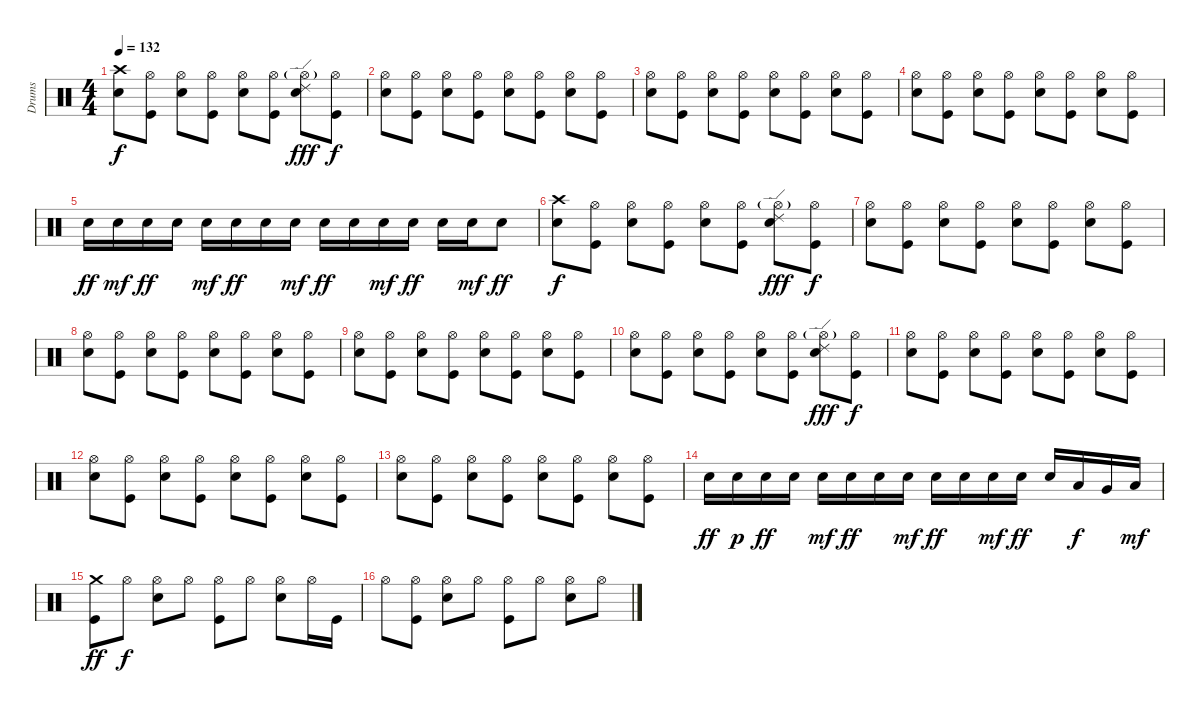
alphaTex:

\track ("Drums" "Drums") {instrument percussion}
\staff {score}
\articulation defaults
\ts (4 4)
\tempo 132
\clef neutral
\ks c
("Crash high (hit)" "Snare (hit) 2").8{dy f} ("Hi-Hat (open)" "Kick (hit)").8 ("Hi-Hat (open)" "Snare (hit) 2").8 ("Hi-Hat (open)" "Kick (hit)").8 ("Hi-Hat (open)" "Snare (hit) 2").8 ("Hi-Hat (open)" "Kick (hit)").8 ("Hi-Hat (open)"{g} "Ride (edge) 2" "Snare (hit) 2").8{dy fff} ("Hi-Hat (open)" "Kick (hit)").8{dy f} |
("Hi-Hat (open)" "Snare (hit) 2").8 ("Hi-Hat (open)" "Kick (hit)").8 ("Hi-Hat (open)" "Snare (hit) 2").8 ("Hi-Hat (open)" "Kick (hit)").8 ("Hi-Hat (open)" "Snare (hit) 2").8 ("Hi-Hat (open)" "Kick (hit)").8 ("Hi-Hat (open)" "Snare (hit) 2").8 ("Hi-Hat (open)" "Kick (hit)").8 |
("Hi-Hat (open)" "Snare (hit) 2").8 ("Hi-Hat (open)" "Kick (hit)").8 ("Hi-Hat (open)" "Snare (hit) 2").8 ("Hi-Hat (open)" "Kick (hit)").8 ("Hi-Hat (open)" "Snare (hit) 2").8 ("Hi-Hat (open)" "Kick (hit)").8 ("Hi-Hat (open)" "Snare (hit) 2").8 ("Hi-Hat (open)" "Kick (hit)").8 |
("Hi-Hat (open)" "Snare (hit) 2").8 ("Hi-Hat (open)" "Kick (hit)").8 ("Hi-Hat (open)" "Snare (hit) 2").8 ("Hi-Hat (open)" "Kick (hit)").8 ("Hi-Hat (open)" "Snare (hit) 2").8 ("Hi-Hat (open)" "Kick (hit)").8 ("Hi-Hat (open)" "Snare (hit) 2").8 ("Hi-Hat (open)" "Kick (hit)").8 |
"Snare (hit) 2".16{dy ff} "Snare (hit) 2".16{dy mf} "Snare (hit) 2".16{dy ff} "Snare (hit) 2".16 "Snare (hit) 2".16{dy mf} "Snare (hit) 2".16{dy ff} "Snare (hit) 2".16 "Snare (hit) 2".16{dy mf} "Snare (hit) 2".16{dy ff} "Snare (hit) 2".16 "Snare (hit) 2".16{dy mf} "Snare (hit) 2".16{dy ff} "Snare (hit) 2".16 "Snare (hit) 2".16{dy mf} "Snare (hit) 2".8{dy ff} |
("Crash high (hit)" "Snare (hit) 2").8{dy f} ("Hi-Hat (open)" "Kick (hit)").8 ("Hi-Hat (open)" "Snare (hit) 2").8 ("Hi-Hat (open)" "Kick (hit)").8 ("Hi-Hat (open)" "Snare (hit) 2").8 ("Hi-Hat (open)" "Kick (hit)").8 ("Hi-Hat (open)"{g} "Ride (edge) 2" "Snare (hit) 2").8{dy fff} ("Hi-Hat (open)" "Kick (hit)").8{dy f} |
("Hi-Hat (open)" "Snare (hit) 2").8 ("Hi-Hat (open)" "Kick (hit)").8 ("Hi-Hat (open)" "Snare (hit) 2").8 ("Hi-Hat (open)" "Kick (hit)").8 ("Hi-Hat (open)" "Snare (hit) 2").8 ("Hi-Hat (open)" "Kick (hit)").8 ("Hi-Hat (open)" "Snare (hit) 2").8 ("Hi-Hat (open)" "Kick (hit)").8 |
("Hi-Hat (open)" "Snare (hit) 2").8 ("Hi-Hat (open)" "Kick (hit)").8 ("Hi-Hat (open)" "Snare (hit) 2").8 ("Hi-Hat (open)" "Kick (hit)").8 ("Hi-Hat (open)" "Snare (hit) 2").8 ("Hi-Hat (open)" "Kick (hit)").8 ("Hi-Hat (open)" "Snare (hit) 2").8 ("Hi-Hat (open)" "Kick (hit)").8 |
("Hi-Hat (open)" "Snare (hit) 2").8 ("Hi-Hat (open)" "Kick (hit)").8 ("Hi-Hat (open)" "Snare (hit) 2").8 ("Hi-Hat (open)" "Kick (hit)").8 ("Hi-Hat (open)" "Snare (hit) 2").8 ("Hi-Hat (open)" "Kick (hit)").8 ("Hi-Hat (open)" "Snare (hit) 2").8 ("Hi-Hat (open)" "Kick (hit)").8 |
("Hi-Hat (open)" "Snare (hit) 2").8 ("Hi-Hat (open)" "Kick (hit)").8 ("Hi-Hat (open)" "Snare (hit) 2").8 ("Hi-Hat (open)" "Kick (hit)").8 ("Hi-Hat (open)" "Snare (hit) 2").8 ("Hi-Hat (open)" "Kick (hit)").8 ("Hi-Hat (open)"{g} "Ride (edge) 2" "Snare (hit) 2").8{dy fff} ("Hi-Hat (open)" "Kick (hit)").8{dy f} |
("Hi-Hat (open)" "Snare (hit) 2").8 ("Hi-Hat (open)" "Kick (hit)").8 ("Hi-Hat (open)" "Snare (hit) 2").8 ("Hi-Hat (open)" "Kick (hit)").8 ("Hi-Hat (open)" "Snare (hit) 2").8 ("Hi-Hat (open)" "Kick (hit)").8 ("Hi-Hat (open)" "Snare (hit) 2").8 ("Hi-Hat (open)" "Kick (hit)").8 |
("Hi-Hat (open)" "Snare (hit) 2").8 ("Hi-Hat (open)" "Kick (hit)").8 ("Hi-Hat (open)" "Snare (hit) 2").8 ("Hi-Hat (open)" "Kick (hit)").8 ("Hi-Hat (open)" "Snare (hit) 2").8 ("Hi-Hat (open)" "Kick (hit)").8 ("Hi-Hat (open)" "Snare (hit) 2").8 ("Hi-Hat (open)" "Kick (hit)").8 |
("Hi-Hat (open)" "Snare (hit) 2").8 ("Hi-Hat (open)" "Kick (hit)").8 ("Hi-Hat (open)" "Snare (hit) 2").8 ("Hi-Hat (open)" "Kick (hit)").8 ("Hi-Hat (open)" "Snare (hit) 2").8 ("Hi-Hat (open)" "Kick (hit)").8 ("Hi-Hat (open)" "Snare (hit) 2").8 ("Hi-Hat (open)" "Kick (hit)").8 |
"Snare (hit) 2".16{dy ff} "Snare (hit) 2".16{dy p} "Snare (hit) 2".16{dy ff} "Snare (hit) 2".16 "Snare (hit) 2".16{dy mf} "Snare (hit) 2".16{dy ff} "Snare (hit) 2".16 "Snare (hit) 2".16{dy mf} "Snare (hit) 2".16{dy ff} "Snare (hit) 2".16 "Snare (hit) 2".16{dy mf} "Snare (hit) 2".16{dy ff} "Snare (hit) 2".16 "Low Tom (hit)".16{dy f} "Very Low Tom (hit)".16 "Low Floor Tom (hit)".16{dy mf} |
("Crash medium (hit)" "Kick (hit)").8{dy ff} "Hi-Hat (open)".8{dy f} ("Hi-Hat (open)" "Snare (hit) 2").8 "Hi-Hat (open)".8 ("Hi-Hat (open)" "Kick (hit)").8 "Hi-Hat (open)".8 ("Hi-Hat (open)" "Snare (hit) 2").8 "Hi-Hat (open)".16 "Kick (hit)".16 |
"Hi-Hat (open)".8 ("Hi-Hat (open)" "Kick (hit)").8 ("Hi-Hat (open)" "Snare (hit) 2").8 "Hi-Hat (open)".8 ("Hi-Hat (open)" "Kick (hit)").8 "Hi-Hat (open)".8 ("Hi-Hat (open)" "Snare (hit) 2").8 "Hi-Hat (open)".8
